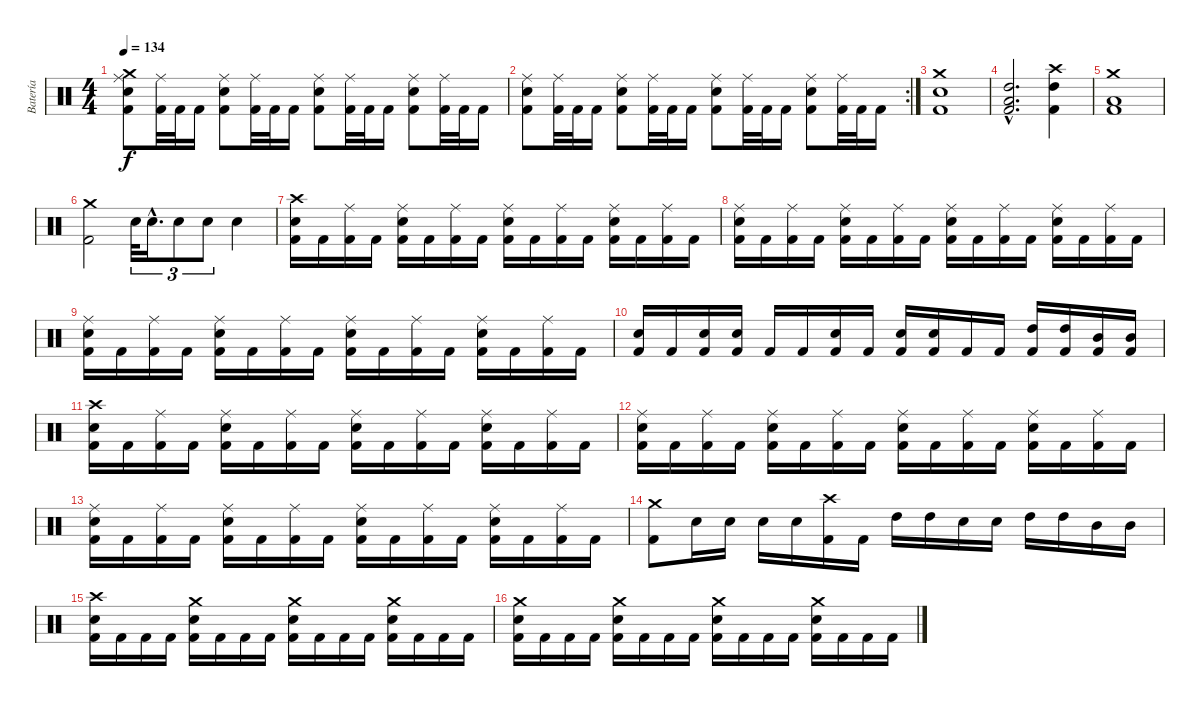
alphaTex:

\track ("Batería" "Batería") {instrument percussion}
\staff {score}
\articulation defaults
\ts (4 4)
\tempo 134
\clef neutral
\ks c
("Crash medium (hit)" "Ride (middle)" "Electric Snare (hit)" "Kick (hit) 2").8{dy f} ("Ride (middle)" "Kick (hit) 2").32 "Kick (hit) 2".32 "Kick (hit) 2".16 ("Ride (middle)" "Electric Snare (hit)" "Kick (hit) 2").8 ("Ride (middle)" "Kick (hit) 2").32 "Kick (hit) 2".32 "Kick (hit) 2".16 ("Ride (middle)" "Electric Snare (hit)" "Kick (hit) 2").8 ("Ride (middle)" "Kick (hit) 2").32 "Kick (hit) 2".32 "Kick (hit) 2".16 ("Ride (middle)" "Electric Snare (hit)" "Kick (hit) 2").8 ("Ride (middle)" "Kick (hit) 2").32 "Kick (hit) 2".32 "Kick (hit) 2".16 |
\rc 2
("Ride (middle)" "Electric Snare (hit)" "Kick (hit) 2").8 ("Ride (middle)" "Kick (hit) 2").32 "Kick (hit) 2".32 "Kick (hit) 2".16 ("Ride (middle)" "Electric Snare (hit)" "Kick (hit) 2").8 ("Ride (middle)" "Kick (hit) 2").32 "Kick (hit) 2".32 "Kick (hit) 2".16 ("Ride (middle)" "Electric Snare (hit)" "Kick (hit) 2").8 ("Ride (middle)" "Kick (hit) 2").32 "Kick (hit) 2".32 "Kick (hit) 2".16 ("Ride (middle)" "Electric Snare (hit)" "Kick (hit) 2").8 ("Ride (middle)" "Kick (hit) 2").32 "Kick (hit) 2".32 "Kick (hit) 2".16 |
("Crash medium (hit)" "Electric Snare (hit)" "Kick (hit) 2").1 |
("Low Tom (hit)"{hac} "High Tom (hit)"{hac} "Kick (hit) 2"{hac}).2{d} ("Crash high (hit)" "High Tom (hit)" "Kick (hit) 2").4 |
("Crash medium (hit)" "Low Tom (hit)" "Kick (hit) 2").1 |
("Crash medium (hit)" "Kick (hit) 2").2 "Electric Snare (hit)".32{tu (3 2)} "Electric Snare (hit)"{hac}.16{d tu (3 2)} "Electric Snare (hit)".8{tu (3 2)} "Electric Snare (hit)".8{tu (3 2)} "Electric Snare (hit)".4 |
("Crash high (hit)" "Electric Snare (hit)" "Kick (hit) 2").16 "Kick (hit) 2".16 ("Ride (middle)" "Kick (hit) 2").16 "Kick (hit) 2".16 ("Ride (middle)" "Electric Snare (hit)" "Kick (hit) 2").16 "Kick (hit) 2".16 ("Ride (middle)" "Kick (hit) 2").16 "Kick (hit) 2".16 ("Ride (middle)" "Electric Snare (hit)" "Kick (hit) 2").16 "Kick (hit) 2".16 ("Ride (middle)" "Kick (hit) 2").16 "Kick (hit) 2".16 ("Ride (middle)" "Electric Snare (hit)" "Kick (hit) 2").16 "Kick (hit) 2".16 ("Ride (middle)" "Kick (hit) 2").16 "Kick (hit) 2".16 |
("Ride (middle)" "Electric Snare (hit)" "Kick (hit) 2").16 "Kick (hit) 2".16 ("Ride (middle)" "Kick (hit) 2").16 "Kick (hit) 2".16 ("Ride (middle)" "Electric Snare (hit)" "Kick (hit) 2").16 "Kick (hit) 2".16 ("Ride (middle)" "Kick (hit) 2").16 "Kick (hit) 2".16 ("Ride (middle)" "Electric Snare (hit)" "Kick (hit) 2").16 "Kick (hit) 2".16 ("Ride (middle)" "Kick (hit) 2").16 "Kick (hit) 2".16 ("Ride (middle)" "Electric Snare (hit)" "Kick (hit) 2").16 "Kick (hit) 2".16 ("Ride (middle)" "Kick (hit) 2").16 "Kick (hit) 2".16 |
("Ride (middle)" "Electric Snare (hit)" "Kick (hit) 2").16 "Kick (hit) 2".16 ("Ride (middle)" "Kick (hit) 2").16 "Kick (hit) 2".16 ("Ride (middle)" "Electric Snare (hit)" "Kick (hit) 2").16 "Kick (hit) 2".16 ("Ride (middle)" "Kick (hit) 2").16 "Kick (hit) 2".16 ("Ride (middle)" "Electric Snare (hit)" "Kick (hit) 2").16 "Kick (hit) 2".16 ("Ride (middle)" "Kick (hit) 2").16 "Kick (hit) 2".16 ("Ride (middle)" "Electric Snare (hit)" "Kick (hit) 2").16 "Kick (hit) 2".16 ("Ride (middle)" "Kick (hit) 2").16 "Kick (hit) 2".16 |
("Electric Snare (hit)" "Kick (hit) 2").16 "Kick (hit) 2".16 ("Electric Snare (hit)" "Kick (hit) 2").16 ("Electric Snare (hit)" "Kick (hit) 2").16 "Kick (hit) 2".16 "Kick (hit) 2".16 ("Electric Snare (hit)" "Kick (hit) 2").16 "Kick (hit) 2".16 ("Electric Snare (hit)" "Kick (hit) 2").16 ("Electric Snare (hit)" "Kick (hit) 2").16 "Kick (hit) 2".16 "Kick (hit) 2".16 ("High Tom (hit)" "Kick (hit) 2").16 ("High Tom (hit)" "Kick (hit) 2").16 ("Mid Tom (hit)" "Kick (hit) 2").16 ("Mid Tom (hit)" "Kick (hit) 2").16 |
("Crash high (hit)" "Electric Snare (hit)" "Kick (hit) 2").16 "Kick (hit) 2".16 ("Ride (middle)" "Kick (hit) 2").16 "Kick (hit) 2".16 ("Ride (middle)" "Electric Snare (hit)" "Kick (hit) 2").16 "Kick (hit) 2".16 ("Ride (middle)" "Kick (hit) 2").16 "Kick (hit) 2".16 ("Ride (middle)" "Electric Snare (hit)" "Kick (hit) 2").16 "Kick (hit) 2".16 ("Ride (middle)" "Kick (hit) 2").16 "Kick (hit) 2".16 ("Ride (middle)" "Electric Snare (hit)" "Kick (hit) 2").16 "Kick (hit) 2".16 ("Ride (middle)" "Kick (hit) 2").16 "Kick (hit) 2".16 |
("Ride (middle)" "Electric Snare (hit)" "Kick (hit) 2").16 "Kick (hit) 2".16 ("Ride (middle)" "Kick (hit) 2").16 "Kick (hit) 2".16 ("Ride (middle)" "Electric Snare (hit)" "Kick (hit) 2").16 "Kick (hit) 2".16 ("Ride (middle)" "Kick (hit) 2").16 "Kick (hit) 2".16 ("Ride (middle)" "Electric Snare (hit)" "Kick (hit) 2").16 "Kick (hit) 2".16 ("Ride (middle)" "Kick (hit) 2").16 "Kick (hit) 2".16 ("Ride (middle)" "Electric Snare (hit)" "Kick (hit) 2").16 "Kick (hit) 2".16 ("Ride (middle)" "Kick (hit) 2").16 "Kick (hit) 2".16 |
("Ride (middle)" "Electric Snare (hit)" "Kick (hit) 2").16 "Kick (hit) 2".16 ("Ride (middle)" "Kick (hit) 2").16 "Kick (hit) 2".16 ("Ride (middle)" "Electric Snare (hit)" "Kick (hit) 2").16 "Kick (hit) 2".16 ("Ride (middle)" "Kick (hit) 2").16 "Kick (hit) 2".16 ("Ride (middle)" "Electric Snare (hit)" "Kick (hit) 2").16 "Kick (hit) 2".16 ("Ride (middle)" "Kick (hit) 2").16 "Kick (hit) 2".16 ("Ride (middle)" "Electric Snare (hit)" "Kick (hit) 2").16 "Kick (hit) 2".16 ("Ride (middle)" "Kick (hit) 2").16 "Kick (hit) 2".16 |
("Crash medium (hit)" "Kick (hit) 2").8 "Electric Snare (hit)".16 "Electric Snare (hit)".16 "Electric Snare (hit)".16 "Electric Snare (hit)".16 ("Crash high (hit)" "Kick (hit) 2").16 "Kick (hit) 2".16 "High Tom (hit)".16 "High Tom (hit)".16 "Electric Snare (hit)".16 "Electric Snare (hit)".16 "High Tom (hit)".16 "High Tom (hit)".16 "Mid Tom (hit)".16 "Mid Tom (hit)".16 |
("Crash high (hit)" "Electric Snare (hit)" "Kick (hit) 2").16 "Kick (hit) 2".16 "Kick (hit) 2".16 "Kick (hit) 2".16 ("Crash medium (hit)" "Electric Snare (hit)" "Kick (hit) 2").16 "Kick (hit) 2".16 "Kick (hit) 2".16 "Kick (hit) 2".16 ("Crash medium (hit)" "Electric Snare (hit)" "Kick (hit) 2").16 "Kick (hit) 2".16 "Kick (hit) 2".16 "Kick (hit) 2".16 ("Crash medium (hit)" "Electric Snare (hit)" "Kick (hit) 2").16 "Kick (hit) 2".16 "Kick (hit) 2".16 "Kick (hit) 2".16 |
("Crash medium (hit)" "Electric Snare (hit)" "Kick (hit) 2").16 "Kick (hit) 2".16 "Kick (hit) 2".16 "Kick (hit) 2".16 ("Crash medium (hit)" "Electric Snare (hit)" "Kick (hit) 2").16 "Kick (hit) 2".16 "Kick (hit) 2".16 "Kick (hit) 2".16 ("Crash medium (hit)" "Electric Snare (hit)" "Kick (hit) 2").16 "Kick (hit) 2".16 "Kick (hit) 2".16 "Kick (hit) 2".16 ("Crash medium (hit)" "Electric Snare (hit)" "Kick (hit) 2").16 "Kick (hit) 2".16 "Kick (hit) 2".16 "Kick (hit) 2".16
